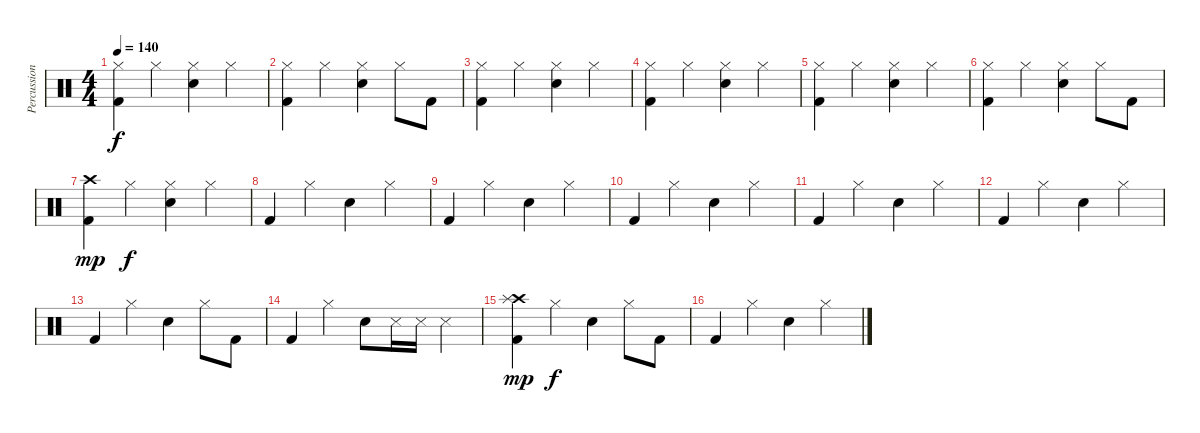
\track ("Percussion" "Percussion") {instrument percussion}
\staff {score}
\articulation defaults
\ts (4 4)
\tempo 140
\clef neutral
\ks c
("Hi-Hat (closed)" "Kick (hit) 2").4{dy f} "Hi-Hat (closed)".4 ("Hi-Hat (closed)" "Snare (hit) 2").4 "Hi-Hat (closed)".4 |
("Hi-Hat (closed)" "Kick (hit) 2").4 "Hi-Hat (closed)".4 ("Hi-Hat (closed)" "Electric Snare (hit)").4 "Hi-Hat (closed)".8 "Kick (hit) 2".8 |
("Hi-Hat (closed)" "Kick (hit) 2").4 "Hi-Hat (closed)".4 ("Hi-Hat (closed)" "Electric Snare (hit)").4 "Hi-Hat (closed)".4 |
("Hi-Hat (closed)" "Kick (hit) 2").4 "Hi-Hat (closed)".4 ("Hi-Hat (closed)" "Electric Snare (hit)").4 "Hi-Hat (closed)".4 |
("Hi-Hat (closed)" "Kick (hit) 2").4 "Hi-Hat (closed)".4 ("Hi-Hat (closed)" "Electric Snare (hit)").4 "Hi-Hat (closed)".4 |
("Hi-Hat (closed)" "Kick (hit) 2").4 "Hi-Hat (closed)".4 ("Hi-Hat (closed)" "Electric Snare (hit)").4 "Hi-Hat (closed)".8 "Kick (hit) 2".8 |
("Crash high (hit)" "Kick (hit) 2").4{dy mp} "Hi-Hat (closed)".4{dy f} ("Hi-Hat (closed)" "Snare (hit) 2").4 "Hi-Hat (closed)".4 |
"Kick (hit) 2".4 "Hi-Hat (closed)".4 "Snare (hit) 2".4 "Hi-Hat (closed)".4 |
"Kick (hit) 2".4 "Hi-Hat (closed)".4 "Snare (hit) 2".4 "Hi-Hat (closed)".4 |
"Kick (hit) 2".4 "Hi-Hat (closed)".4 "Snare (hit) 2".4 "Hi-Hat (closed)".4 |
"Kick (hit) 2".4 "Hi-Hat (closed)".4 "Snare (hit) 2".4 "Hi-Hat (closed)".4 |
"Kick (hit) 2".4 "Hi-Hat (closed)".4 "Snare (hit) 2".4 "Hi-Hat (closed)".4 |
"Kick (hit) 2".4 "Hi-Hat (closed)".4 "Snare (hit) 2".4 "Hi-Hat (closed)".8 "Kick (hit) 2".8 |
"Kick (hit) 2".4 "Hi-Hat (closed)".4 "Electric Snare (hit)".8 "Snare (side stick) 3".16 "Snare (side stick) 3".16 "Snare (side stick) 3".4 |
("Crash high (hit)" "Splash (hit)" "Kick (hit) 2").4{dy mp} "Hi-Hat (closed)".4{dy f} "Snare (hit) 2".4 "Hi-Hat (closed)".8 "Kick (hit) 2".8 |
"Kick (hit) 2".4 "Hi-Hat (closed)".4 "Snare (hit) 2".4 "Hi-Hat (closed)".4
